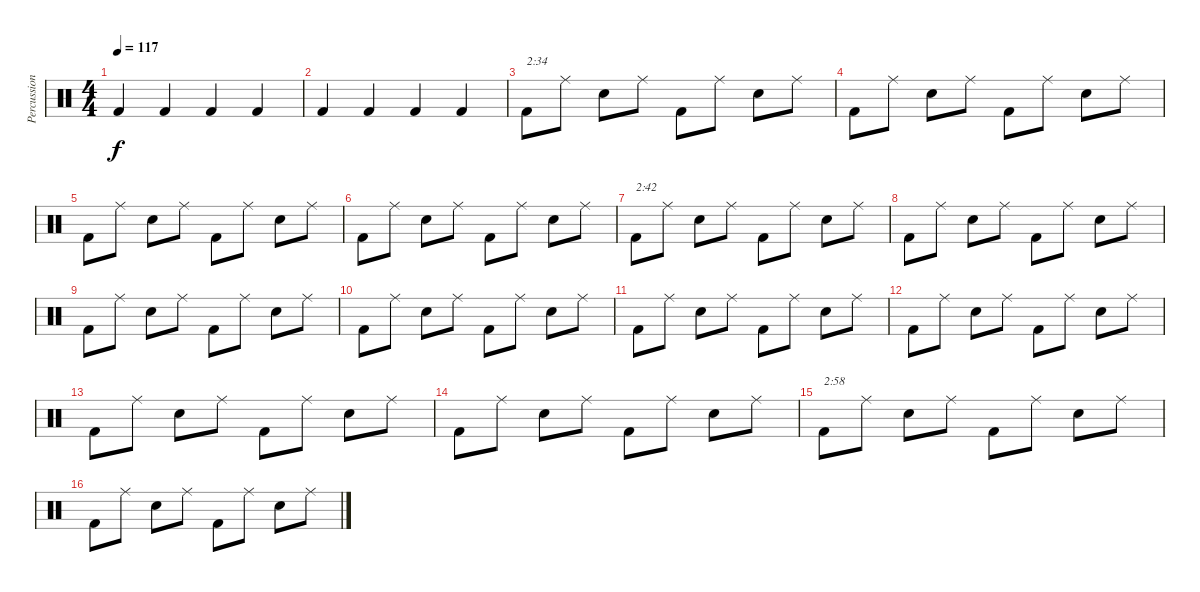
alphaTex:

\track ("Percussion" "Percussion") {instrument percussion}
\staff {score}
\articulation defaults
\ts (4 4)
\tempo 117
\clef neutral
\ks c "Kick (hit) 2".4{dy f} "Kick (hit) 2".4 "Kick (hit) 2".4 "Kick (hit) 2".4
|
"Kick (hit) 2".4 "Kick (hit) 2".4 "Kick (hit) 2".4 "Kick (hit) 2".4 |
"Kick (hit) 2".8{txt "2:34"} "Ride (middle)".8 "Snare (hit) 2".8 "Ride (middle)".8 "Kick (hit) 2".8 "Ride (middle)".8 "Snare (hit) 2".8 "Ride (middle)".8 |
"Kick (hit) 2".8 "Ride (middle)".8 "Snare (hit) 2".8 "Ride (middle)".8 "Kick (hit) 2".8 "Ride (middle)".8 "Snare (hit) 2".8 "Ride (middle)".8 |
"Kick (hit) 2".8 "Ride (middle)".8 "Snare (hit) 2".8 "Ride (middle)".8 "Kick (hit) 2".8 "Ride (middle)".8 "Snare (hit) 2".8 "Ride (middle)".8 |
"Kick (hit) 2".8 "Ride (middle)".8 "Snare (hit) 2".8 "Ride (middle)".8 "Kick (hit) 2".8 "Ride (middle)".8 "Snare (hit) 2".8 "Ride (middle)".8 |
"Kick (hit) 2".8{txt "2:42"} "Ride (middle)".8 "Snare (hit) 2".8 "Ride (middle)".8 "Kick (hit) 2".8 "Ride (middle)".8 "Snare (hit) 2".8 "Ride (middle)".8 |
"Kick (hit) 2".8 "Ride (middle)".8 "Snare (hit) 2".8 "Ride (middle)".8 "Kick (hit) 2".8 "Ride (middle)".8 "Snare (hit) 2".8 "Ride (middle)".8 |
"Kick (hit) 2".8 "Ride (middle)".8 "Snare (hit) 2".8 "Ride (middle)".8 "Kick (hit) 2".8 "Ride (middle)".8 "Snare (hit) 2".8 "Ride (middle)".8 |
"Kick (hit) 2".8 "Ride (middle)".8 "Snare (hit) 2".8 "Ride (middle)".8 "Kick (hit) 2".8 "Ride (middle)".8 "Snare (hit) 2".8 "Ride (middle)".8 |
"Kick (hit) 2".8 "Ride (middle)".8 "Snare (hit) 2".8 "Ride (middle)".8 "Kick (hit) 2".8 "Ride (middle)".8 "Snare (hit) 2".8 "Ride (middle)".8 |
"Kick (hit) 2".8 "Ride (middle)".8 "Snare (hit) 2".8 "Ride (middle)".8 "Kick (hit) 2".8 "Ride (middle)".8 "Snare (hit) 2".8 "Ride (middle)".8 |
"Kick (hit) 2".8 "Ride (middle)".8 "Snare (hit) 2".8 "Ride (middle)".8 "Kick (hit) 2".8 "Ride (middle)".8 "Snare (hit) 2".8 "Ride (middle)".8 |
"Kick (hit) 2".8 "Ride (middle)".8 "Snare (hit) 2".8 "Ride (middle)".8 "Kick (hit) 2".8 "Ride (middle)".8 "Snare (hit) 2".8 "Ride (middle)".8 |
"Kick (hit) 2".8{txt "2:58"} "Ride (middle)".8 "Snare (hit) 2".8 "Ride (middle)".8 "Kick (hit) 2".8 "Ride (middle)".8 "Snare (hit) 2".8 "Ride (middle)".8 |
"Kick (hit) 2".8 "Ride (middle)".8 "Snare (hit) 2".8 "Ride (middle)".8 "Kick (hit) 2".8 "Ride (middle)".8 "Snare (hit) 2".8 "Ride (middle)".8
